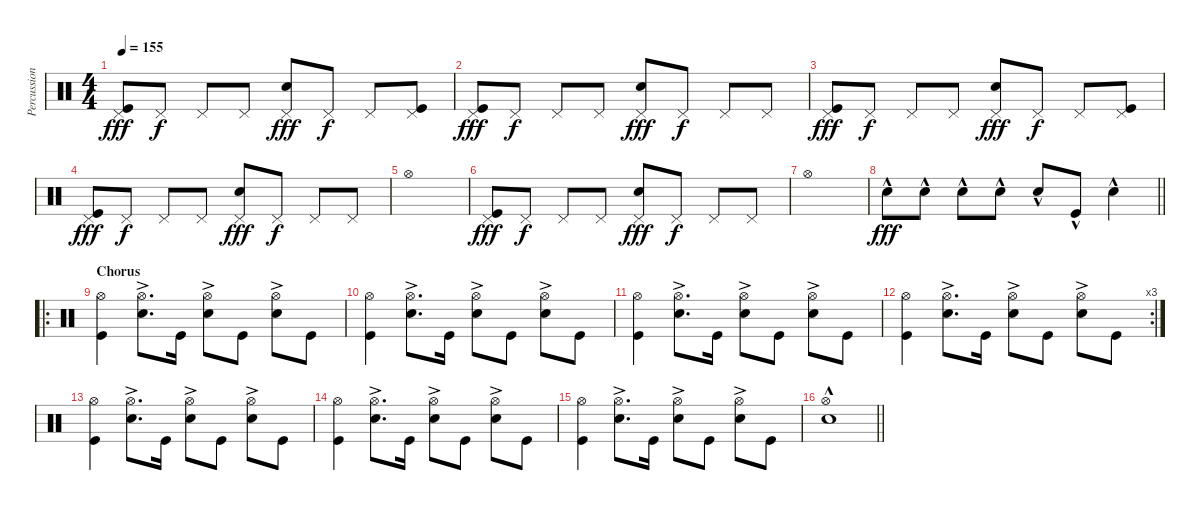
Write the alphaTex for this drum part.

\track ("Percussion" "Percussion") {instrument percussion}
\staff {score}
\articulation defaults
\ts (4 4)
\tempo 155
\clef neutral
\ks c
("Pedal Hi-Hat (hit)" "Kick (hit)").8{dy fff} "Pedal Hi-Hat (hit)".8{dy f} "Pedal Hi-Hat (hit)".8 "Pedal Hi-Hat (hit)".8 ("Pedal Hi-Hat (hit)" "Snare (hit) 2").8{dy fff} "Pedal Hi-Hat (hit)".8{dy f} "Pedal Hi-Hat (hit)".8 ("Pedal Hi-Hat (hit)" "Kick (hit)").8 |
("Pedal Hi-Hat (hit)" "Kick (hit)").8{dy fff} "Pedal Hi-Hat (hit)".8{dy f} "Pedal Hi-Hat (hit)".8 "Pedal Hi-Hat (hit)".8 ("Pedal Hi-Hat (hit)" "Snare (hit) 2").8{dy fff} "Pedal Hi-Hat (hit)".8{dy f} "Pedal Hi-Hat (hit)".8 "Pedal Hi-Hat (hit)".8 |
("Pedal Hi-Hat (hit)" "Kick (hit)").8{dy fff} "Pedal Hi-Hat (hit)".8{dy f} "Pedal Hi-Hat (hit)".8 "Pedal Hi-Hat (hit)".8 ("Pedal Hi-Hat (hit)" "Snare (hit) 2").8{dy fff} "Pedal Hi-Hat (hit)".8{dy f} "Pedal Hi-Hat (hit)".8 ("Pedal Hi-Hat (hit)" "Kick (hit)").8 |
("Pedal Hi-Hat (hit)" "Kick (hit)").8{dy fff} "Pedal Hi-Hat (hit)".8{dy f} "Pedal Hi-Hat (hit)".8 "Pedal Hi-Hat (hit)".8 ("Pedal Hi-Hat (hit)" "Snare (hit) 2").8{dy fff} "Pedal Hi-Hat (hit)".8{dy f} "Pedal Hi-Hat (hit)".8 "Pedal Hi-Hat (hit)".8 |
"Hi-Hat (open)".1 |
("Pedal Hi-Hat (hit)" "Kick (hit)").8{dy fff} "Pedal Hi-Hat (hit)".8{dy f} "Pedal Hi-Hat (hit)".8 "Pedal Hi-Hat (hit)".8 ("Pedal Hi-Hat (hit)" "Snare (hit) 2").8{dy fff} "Pedal Hi-Hat (hit)".8{dy f} "Pedal Hi-Hat (hit)".8 "Pedal Hi-Hat (hit)".8 |
"Hi-Hat (open)".1 |
\barLineRight lightlight "Snare (hit) 2"{hac}.8{dy fff} "Snare (hit) 2"{hac}.8 "Snare (hit) 2"{hac}.8 "Snare (hit) 2"{hac}.8 "Snare (hit) 2"{hac}.8 "Kick (hit)"{hac}.8 "Snare (hit) 2"{hac}.4
|
\ro
\section ("" "Chorus")
("Hi-Hat (open)" "Kick (hit)").4 ("Hi-Hat (open)" "Snare (hit) 2"{ac}).8{d} "Kick (hit)".16 ("Hi-Hat (open)" "Snare (hit) 2"{ac}).8 "Kick (hit)".8 ("Hi-Hat (open)" "Snare (hit) 2"{ac}).8 "Kick (hit)".8 |
("Hi-Hat (open)" "Kick (hit)").4 ("Hi-Hat (open)" "Snare (hit) 2"{ac}).8{d} "Kick (hit)".16 ("Hi-Hat (open)" "Snare (hit) 2"{ac}).8 "Kick (hit)".8 ("Hi-Hat (open)" "Snare (hit) 2"{ac}).8 "Kick (hit)".8 |
("Hi-Hat (open)" "Kick (hit)").4 ("Hi-Hat (open)" "Snare (hit) 2"{ac}).8{d} "Kick (hit)".16 ("Hi-Hat (open)" "Snare (hit) 2"{ac}).8 "Kick (hit)".8 ("Hi-Hat (open)" "Snare (hit) 2"{ac}).8 "Kick (hit)".8 |
\rc 3
("Hi-Hat (open)" "Kick (hit)").4 ("Hi-Hat (open)" "Snare (hit) 2"{ac}).8{d} "Kick (hit)".16 ("Hi-Hat (open)" "Snare (hit) 2"{ac}).8 "Kick (hit)".8 ("Hi-Hat (open)" "Snare (hit) 2"{ac}).8 "Kick (hit)".8 |
("Hi-Hat (open)" "Kick (hit)").4 ("Hi-Hat (open)" "Snare (hit) 2"{ac}).8{d} "Kick (hit)".16 ("Hi-Hat (open)" "Snare (hit) 2"{ac}).8 "Kick (hit)".8 ("Hi-Hat (open)" "Snare (hit) 2"{ac}).8 "Kick (hit)".8 |
("Hi-Hat (open)" "Kick (hit)").4 ("Hi-Hat (open)" "Snare (hit) 2"{ac}).8{d} "Kick (hit)".16 ("Hi-Hat (open)" "Snare (hit) 2"{ac}).8 "Kick (hit)".8 ("Hi-Hat (open)" "Snare (hit) 2"{ac}).8 "Kick (hit)".8 |
("Hi-Hat (open)" "Kick (hit)").4 ("Hi-Hat (open)" "Snare (hit) 2"{ac}).8{d} "Kick (hit)".16 ("Hi-Hat (open)" "Snare (hit) 2"{ac}).8 "Kick (hit)".8 ("Hi-Hat (open)" "Snare (hit) 2"{ac}).8 "Kick (hit)".8 |
\barLineRight lightlight
("Hi-Hat (open)" "Snare (hit) 2"{hac}).1
